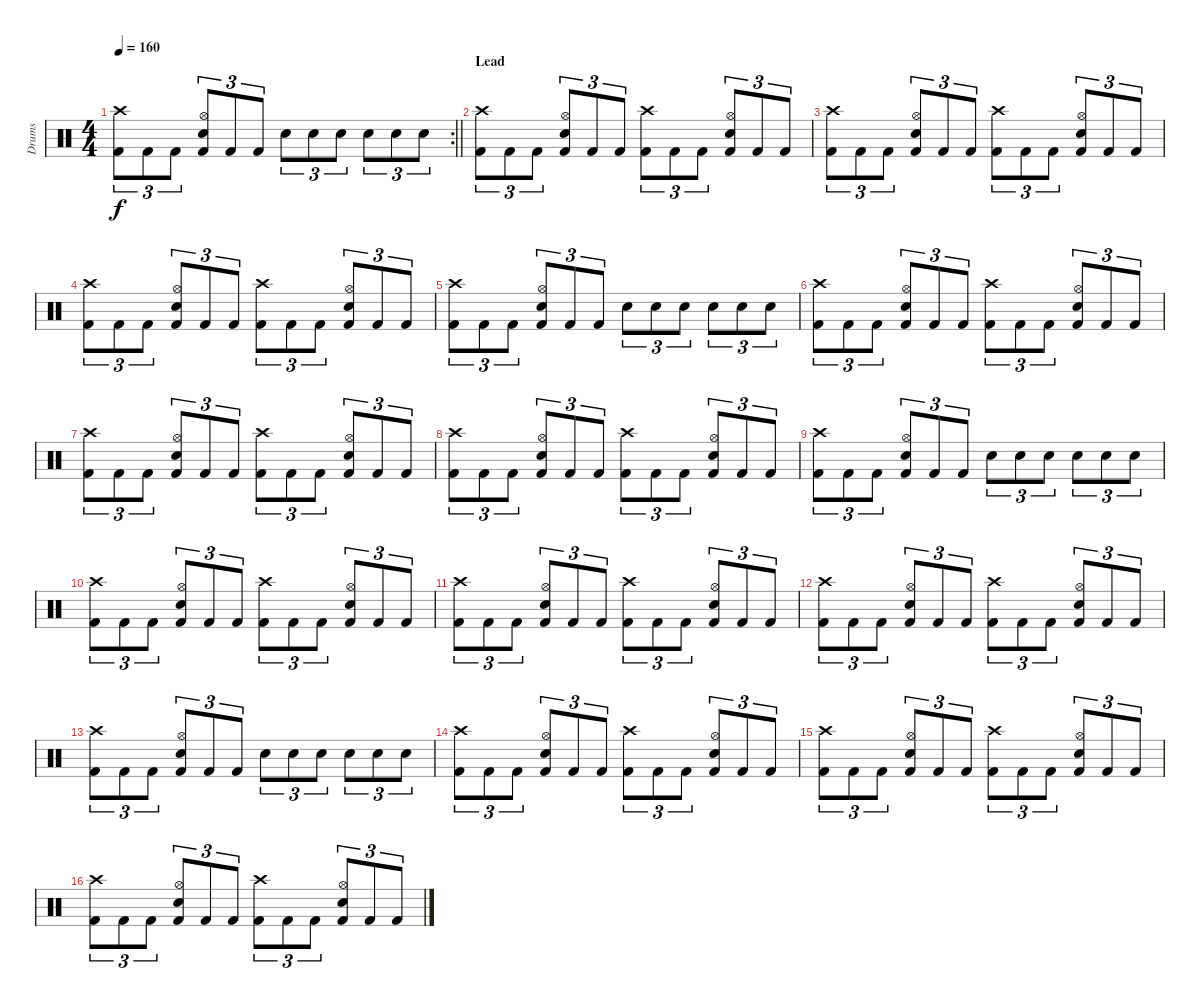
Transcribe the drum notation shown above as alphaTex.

\track ("Drums" "Drums") {instrument percussion}
\staff {score}
\articulation defaults
\rc 2
\ts (4 4)
\tempo 160
\clef neutral
\barLineRight lightlight
\ks c
("Crash high (hit)" "Kick (hit) 2").8{tu (3 2) dy f} "Kick (hit) 2".8{tu (3 2)} "Kick (hit) 2".8{tu (3 2)} ("Hi-Hat (open)" "Snare (hit) 2" "Kick (hit) 2").8{tu (3 2)} "Kick (hit) 2".8{tu (3 2)} "Kick (hit) 2".8{tu (3 2)} "Snare (hit) 2".8{tu (3 2)} "Snare (hit) 2".8{tu (3 2)} "Snare (hit) 2".8{tu (3 2)} "Snare (hit) 2".8{tu (3 2)} "Snare (hit) 2".8{tu (3 2)} "Snare (hit) 2".8{tu (3 2)} |
\section ("" "Lead")
("Crash high (hit)" "Kick (hit) 2").8{tu (3 2)} "Kick (hit) 2".8{tu (3 2)} "Kick (hit) 2".8{tu (3 2)} ("Hi-Hat (open)" "Snare (hit) 2" "Kick (hit) 2").8{tu (3 2)} "Kick (hit) 2".8{tu (3 2)} "Kick (hit) 2".8{tu (3 2)} ("Crash high (hit)" "Kick (hit) 2").8{tu (3 2)} "Kick (hit) 2".8{tu (3 2)} "Kick (hit) 2".8{tu (3 2)} ("Hi-Hat (open)" "Snare (hit) 2" "Kick (hit) 2").8{tu (3 2)} "Kick (hit) 2".8{tu (3 2)} "Kick (hit) 2".8{tu (3 2)} |
("Crash high (hit)" "Kick (hit) 2").8{tu (3 2)} "Kick (hit) 2".8{tu (3 2)} "Kick (hit) 2".8{tu (3 2)} ("Hi-Hat (open)" "Snare (hit) 2" "Kick (hit) 2").8{tu (3 2)} "Kick (hit) 2".8{tu (3 2)} "Kick (hit) 2".8{tu (3 2)} ("Crash high (hit)" "Kick (hit) 2").8{tu (3 2)} "Kick (hit) 2".8{tu (3 2)} "Kick (hit) 2".8{tu (3 2)} ("Hi-Hat (open)" "Snare (hit) 2" "Kick (hit) 2").8{tu (3 2)} "Kick (hit) 2".8{tu (3 2)} "Kick (hit) 2".8{tu (3 2)} |
("Crash high (hit)" "Kick (hit) 2").8{tu (3 2)} "Kick (hit) 2".8{tu (3 2)} "Kick (hit) 2".8{tu (3 2)} ("Hi-Hat (open)" "Snare (hit) 2" "Kick (hit) 2").8{tu (3 2)} "Kick (hit) 2".8{tu (3 2)} "Kick (hit) 2".8{tu (3 2)} ("Crash high (hit)" "Kick (hit) 2").8{tu (3 2)} "Kick (hit) 2".8{tu (3 2)} "Kick (hit) 2".8{tu (3 2)} ("Hi-Hat (open)" "Snare (hit) 2" "Kick (hit) 2").8{tu (3 2)} "Kick (hit) 2".8{tu (3 2)} "Kick (hit) 2".8{tu (3 2)} |
("Crash high (hit)" "Kick (hit) 2").8{tu (3 2)} "Kick (hit) 2".8{tu (3 2)} "Kick (hit) 2".8{tu (3 2)} ("Hi-Hat (open)" "Snare (hit) 2" "Kick (hit) 2").8{tu (3 2)} "Kick (hit) 2".8{tu (3 2)} "Kick (hit) 2".8{tu (3 2)} "Snare (hit) 2".8{tu (3 2)} "Snare (hit) 2".8{tu (3 2)} "Snare (hit) 2".8{tu (3 2)} "Snare (hit) 2".8{tu (3 2)} "Snare (hit) 2".8{tu (3 2)} "Snare (hit) 2".8{tu (3 2)} |
("Crash high (hit)" "Kick (hit) 2").8{tu (3 2)} "Kick (hit) 2".8{tu (3 2)} "Kick (hit) 2".8{tu (3 2)} ("Hi-Hat (open)" "Snare (hit) 2" "Kick (hit) 2").8{tu (3 2)} "Kick (hit) 2".8{tu (3 2)} "Kick (hit) 2".8{tu (3 2)} ("Crash high (hit)" "Kick (hit) 2").8{tu (3 2)} "Kick (hit) 2".8{tu (3 2)} "Kick (hit) 2".8{tu (3 2)} ("Hi-Hat (open)" "Snare (hit) 2" "Kick (hit) 2").8{tu (3 2)} "Kick (hit) 2".8{tu (3 2)} "Kick (hit) 2".8{tu (3 2)} |
("Crash high (hit)" "Kick (hit) 2").8{tu (3 2)} "Kick (hit) 2".8{tu (3 2)} "Kick (hit) 2".8{tu (3 2)} ("Hi-Hat (open)" "Snare (hit) 2" "Kick (hit) 2").8{tu (3 2)} "Kick (hit) 2".8{tu (3 2)} "Kick (hit) 2".8{tu (3 2)} ("Crash high (hit)" "Kick (hit) 2").8{tu (3 2)} "Kick (hit) 2".8{tu (3 2)} "Kick (hit) 2".8{tu (3 2)} ("Hi-Hat (open)" "Snare (hit) 2" "Kick (hit) 2").8{tu (3 2)} "Kick (hit) 2".8{tu (3 2)} "Kick (hit) 2".8{tu (3 2)} |
("Crash high (hit)" "Kick (hit) 2").8{tu (3 2)} "Kick (hit) 2".8{tu (3 2)} "Kick (hit) 2".8{tu (3 2)} ("Hi-Hat (open)" "Snare (hit) 2" "Kick (hit) 2").8{tu (3 2)} "Kick (hit) 2".8{tu (3 2)} "Kick (hit) 2".8{tu (3 2)} ("Crash high (hit)" "Kick (hit) 2").8{tu (3 2)} "Kick (hit) 2".8{tu (3 2)} "Kick (hit) 2".8{tu (3 2)} ("Hi-Hat (open)" "Snare (hit) 2" "Kick (hit) 2").8{tu (3 2)} "Kick (hit) 2".8{tu (3 2)} "Kick (hit) 2".8{tu (3 2)} |
("Crash high (hit)" "Kick (hit) 2").8{tu (3 2)} "Kick (hit) 2".8{tu (3 2)} "Kick (hit) 2".8{tu (3 2)} ("Hi-Hat (open)" "Snare (hit) 2" "Kick (hit) 2").8{tu (3 2)} "Kick (hit) 2".8{tu (3 2)} "Kick (hit) 2".8{tu (3 2)} "Snare (hit) 2".8{tu (3 2)} "Snare (hit) 2".8{tu (3 2)} "Snare (hit) 2".8{tu (3 2)} "Snare (hit) 2".8{tu (3 2)} "Snare (hit) 2".8{tu (3 2)} "Snare (hit) 2".8{tu (3 2)} |
("Crash high (hit)" "Kick (hit) 2").8{tu (3 2)} "Kick (hit) 2".8{tu (3 2)} "Kick (hit) 2".8{tu (3 2)} ("Hi-Hat (open)" "Snare (hit) 2" "Kick (hit) 2").8{tu (3 2)} "Kick (hit) 2".8{tu (3 2)} "Kick (hit) 2".8{tu (3 2)} ("Crash high (hit)" "Kick (hit) 2").8{tu (3 2)} "Kick (hit) 2".8{tu (3 2)} "Kick (hit) 2".8{tu (3 2)} ("Hi-Hat (open)" "Snare (hit) 2" "Kick (hit) 2").8{tu (3 2)} "Kick (hit) 2".8{tu (3 2)} "Kick (hit) 2".8{tu (3 2)} |
("Crash high (hit)" "Kick (hit) 2").8{tu (3 2)} "Kick (hit) 2".8{tu (3 2)} "Kick (hit) 2".8{tu (3 2)} ("Hi-Hat (open)" "Snare (hit) 2" "Kick (hit) 2").8{tu (3 2)} "Kick (hit) 2".8{tu (3 2)} "Kick (hit) 2".8{tu (3 2)} ("Crash high (hit)" "Kick (hit) 2").8{tu (3 2)} "Kick (hit) 2".8{tu (3 2)} "Kick (hit) 2".8{tu (3 2)} ("Hi-Hat (open)" "Snare (hit) 2" "Kick (hit) 2").8{tu (3 2)} "Kick (hit) 2".8{tu (3 2)} "Kick (hit) 2".8{tu (3 2)} |
("Crash high (hit)" "Kick (hit) 2").8{tu (3 2)} "Kick (hit) 2".8{tu (3 2)} "Kick (hit) 2".8{tu (3 2)} ("Hi-Hat (open)" "Snare (hit) 2" "Kick (hit) 2").8{tu (3 2)} "Kick (hit) 2".8{tu (3 2)} "Kick (hit) 2".8{tu (3 2)} ("Crash high (hit)" "Kick (hit) 2").8{tu (3 2)} "Kick (hit) 2".8{tu (3 2)} "Kick (hit) 2".8{tu (3 2)} ("Hi-Hat (open)" "Snare (hit) 2" "Kick (hit) 2").8{tu (3 2)} "Kick (hit) 2".8{tu (3 2)} "Kick (hit) 2".8{tu (3 2)} |
("Crash high (hit)" "Kick (hit) 2").8{tu (3 2)} "Kick (hit) 2".8{tu (3 2)} "Kick (hit) 2".8{tu (3 2)} ("Hi-Hat (open)" "Snare (hit) 2" "Kick (hit) 2").8{tu (3 2)} "Kick (hit) 2".8{tu (3 2)} "Kick (hit) 2".8{tu (3 2)} "Snare (hit) 2".8{tu (3 2)} "Snare (hit) 2".8{tu (3 2)} "Snare (hit) 2".8{tu (3 2)} "Snare (hit) 2".8{tu (3 2)} "Snare (hit) 2".8{tu (3 2)} "Snare (hit) 2".8{tu (3 2)} |
("Crash high (hit)" "Kick (hit) 2").8{tu (3 2)} "Kick (hit) 2".8{tu (3 2)} "Kick (hit) 2".8{tu (3 2)} ("Hi-Hat (open)" "Snare (hit) 2" "Kick (hit) 2").8{tu (3 2)} "Kick (hit) 2".8{tu (3 2)} "Kick (hit) 2".8{tu (3 2)} ("Crash high (hit)" "Kick (hit) 2").8{tu (3 2)} "Kick (hit) 2".8{tu (3 2)} "Kick (hit) 2".8{tu (3 2)} ("Hi-Hat (open)" "Snare (hit) 2" "Kick (hit) 2").8{tu (3 2)} "Kick (hit) 2".8{tu (3 2)} "Kick (hit) 2".8{tu (3 2)} |
("Crash high (hit)" "Kick (hit) 2").8{tu (3 2)} "Kick (hit) 2".8{tu (3 2)} "Kick (hit) 2".8{tu (3 2)} ("Hi-Hat (open)" "Snare (hit) 2" "Kick (hit) 2").8{tu (3 2)} "Kick (hit) 2".8{tu (3 2)} "Kick (hit) 2".8{tu (3 2)} ("Crash high (hit)" "Kick (hit) 2").8{tu (3 2)} "Kick (hit) 2".8{tu (3 2)} "Kick (hit) 2".8{tu (3 2)} ("Hi-Hat (open)" "Snare (hit) 2" "Kick (hit) 2").8{tu (3 2)} "Kick (hit) 2".8{tu (3 2)} "Kick (hit) 2".8{tu (3 2)} |
("Crash high (hit)" "Kick (hit) 2").8{tu (3 2)} "Kick (hit) 2".8{tu (3 2)} "Kick (hit) 2".8{tu (3 2)} ("Hi-Hat (open)" "Snare (hit) 2" "Kick (hit) 2").8{tu (3 2)} "Kick (hit) 2".8{tu (3 2)} "Kick (hit) 2".8{tu (3 2)} ("Crash high (hit)" "Kick (hit) 2").8{tu (3 2)} "Kick (hit) 2".8{tu (3 2)} "Kick (hit) 2".8{tu (3 2)} ("Hi-Hat (open)" "Snare (hit) 2" "Kick (hit) 2").8{tu (3 2)} "Kick (hit) 2".8{tu (3 2)} "Kick (hit) 2".8{tu (3 2)}
